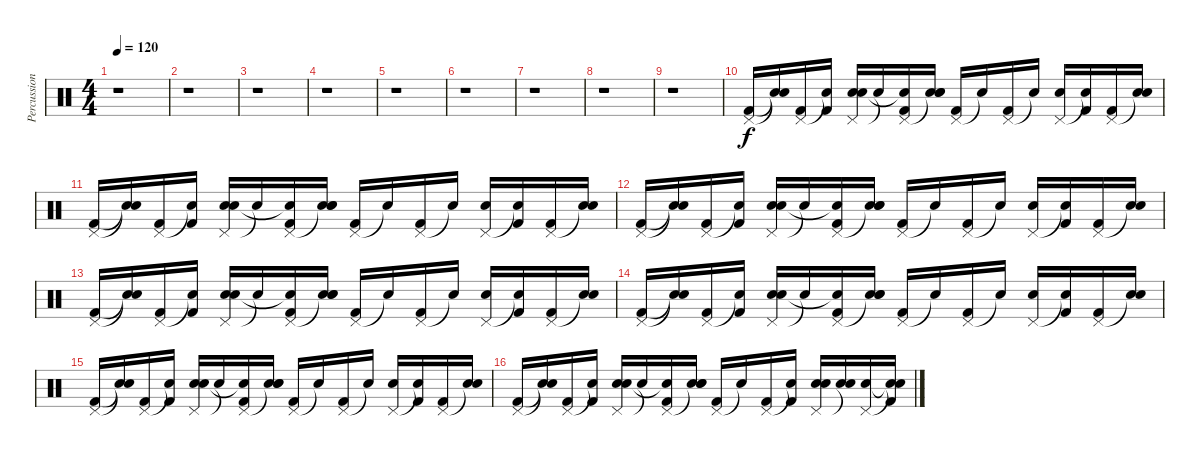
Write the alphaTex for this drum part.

\track ("Percussions" "Percussion") {instrument percussion}
\staff {score}
\articulation defaults
\ts (4 4)
\tempo 120
\clef neutral
\ks c
r.1{dy f} |
r.1 |
r.1 |
r.1 |
r.1 |
r.1 |
r.1 |
r.1 |
r.1 |
("Pedal Hi-Hat (hit)" "Kick (hit) 2").16 ("Snare (hit)"{t} "Snare (hit)"{t}).16 ("Pedal Hi-Hat (hit)" "Kick (hit) 2").16 ("Snare (hit)"{t} "Kick (hit) 2").16 ("Pedal Hi-Hat (hit)" "Electric Snare (hit)" "Snare (hit) 2").16 "Snare (hit)"{t}.16 ("Pedal Hi-Hat (hit)" "Snare (hit)"{t} "Kick (hit) 2").16 ("Snare (hit)"{t} "Electric Snare (hit)" "Snare (hit) 2").16 ("Pedal Hi-Hat (hit)" "Kick (hit) 2").16 "Snare (hit)"{t}.16 ("Pedal Hi-Hat (hit)" "Kick (hit) 2").16 "Snare (hit)"{t}.16 ("Pedal Hi-Hat (hit)" "Snare (hit) 2").16 ("Snare (hit)"{t} "Kick (hit) 2").16 ("Pedal Hi-Hat (hit)" "Kick (hit) 2").16 ("Snare (hit)"{t} "Electric Snare (hit)").16 |
("Pedal Hi-Hat (hit)" "Kick (hit) 2").16 ("Snare (hit)"{t} "Snare (hit)"{t}).16 ("Pedal Hi-Hat (hit)" "Kick (hit) 2").16 ("Snare (hit)"{t} "Kick (hit) 2").16 ("Pedal Hi-Hat (hit)" "Electric Snare (hit)" "Snare (hit) 2").16 "Snare (hit)"{t}.16 ("Pedal Hi-Hat (hit)" "Snare (hit)"{t} "Kick (hit) 2").16 ("Snare (hit)"{t} "Electric Snare (hit)" "Snare (hit) 2").16 ("Pedal Hi-Hat (hit)" "Kick (hit) 2").16 "Snare (hit)"{t}.16 ("Pedal Hi-Hat (hit)" "Kick (hit) 2").16 "Snare (hit)"{t}.16 ("Pedal Hi-Hat (hit)" "Snare (hit) 2").16 ("Snare (hit)"{t} "Kick (hit) 2").16 ("Pedal Hi-Hat (hit)" "Kick (hit) 2").16 ("Snare (hit)"{t} "Electric Snare (hit)").16 |
("Pedal Hi-Hat (hit)" "Kick (hit) 2").16 ("Snare (hit)"{t} "Snare (hit)"{t}).16 ("Pedal Hi-Hat (hit)" "Kick (hit) 2").16 ("Snare (hit)"{t} "Kick (hit) 2").16 ("Pedal Hi-Hat (hit)" "Electric Snare (hit)" "Snare (hit) 2").16 "Snare (hit)"{t}.16 ("Pedal Hi-Hat (hit)" "Snare (hit)"{t} "Kick (hit) 2").16 ("Snare (hit)"{t} "Electric Snare (hit)" "Snare (hit) 2").16 ("Pedal Hi-Hat (hit)" "Kick (hit) 2").16 "Snare (hit)"{t}.16 ("Pedal Hi-Hat (hit)" "Kick (hit) 2").16 "Snare (hit)"{t}.16 ("Pedal Hi-Hat (hit)" "Snare (hit) 2").16 ("Snare (hit)"{t} "Kick (hit) 2").16 ("Pedal Hi-Hat (hit)" "Kick (hit) 2").16 ("Snare (hit)"{t} "Electric Snare (hit)").16 |
("Pedal Hi-Hat (hit)" "Kick (hit) 2").16 ("Snare (hit)"{t} "Snare (hit)"{t}).16 ("Pedal Hi-Hat (hit)" "Kick (hit) 2").16 ("Snare (hit)"{t} "Kick (hit) 2").16 ("Pedal Hi-Hat (hit)" "Electric Snare (hit)" "Snare (hit) 2").16 "Snare (hit)"{t}.16 ("Pedal Hi-Hat (hit)" "Snare (hit)"{t} "Kick (hit) 2").16 ("Snare (hit)"{t} "Electric Snare (hit)" "Snare (hit) 2").16 ("Pedal Hi-Hat (hit)" "Kick (hit) 2").16 "Snare (hit)"{t}.16 ("Pedal Hi-Hat (hit)" "Kick (hit) 2").16 "Snare (hit)"{t}.16 ("Pedal Hi-Hat (hit)" "Snare (hit) 2").16 ("Snare (hit)"{t} "Kick (hit) 2").16 ("Pedal Hi-Hat (hit)" "Kick (hit) 2").16 ("Snare (hit)"{t} "Electric Snare (hit)").16 |
("Pedal Hi-Hat (hit)" "Kick (hit) 2").16 ("Snare (hit)"{t} "Snare (hit)"{t}).16 ("Pedal Hi-Hat (hit)" "Kick (hit) 2").16 ("Snare (hit)"{t} "Kick (hit) 2").16 ("Pedal Hi-Hat (hit)" "Electric Snare (hit)" "Snare (hit) 2").16 "Snare (hit)"{t}.16 ("Pedal Hi-Hat (hit)" "Snare (hit)"{t} "Kick (hit) 2").16 ("Snare (hit)"{t} "Electric Snare (hit)" "Snare (hit) 2").16 ("Pedal Hi-Hat (hit)" "Kick (hit) 2").16 "Snare (hit)"{t}.16 ("Pedal Hi-Hat (hit)" "Kick (hit) 2").16 "Snare (hit)"{t}.16 ("Pedal Hi-Hat (hit)" "Snare (hit) 2").16 ("Snare (hit)"{t} "Kick (hit) 2").16 ("Pedal Hi-Hat (hit)" "Kick (hit) 2").16 ("Snare (hit)"{t} "Electric Snare (hit)").16 |
("Pedal Hi-Hat (hit)" "Kick (hit) 2").16 ("Snare (hit)"{t} "Snare (hit)"{t}).16 ("Pedal Hi-Hat (hit)" "Kick (hit) 2").16 ("Snare (hit)"{t} "Kick (hit) 2").16 ("Pedal Hi-Hat (hit)" "Electric Snare (hit)" "Snare (hit) 2").16 "Snare (hit)"{t}.16 ("Pedal Hi-Hat (hit)" "Snare (hit)"{t} "Kick (hit) 2").16 ("Snare (hit)"{t} "Electric Snare (hit)" "Snare (hit) 2").16 ("Pedal Hi-Hat (hit)" "Kick (hit) 2").16 "Snare (hit)"{t}.16 ("Pedal Hi-Hat (hit)" "Kick (hit) 2").16 "Snare (hit)"{t}.16 ("Pedal Hi-Hat (hit)" "Snare (hit) 2").16 ("Snare (hit)"{t} "Kick (hit) 2").16 ("Pedal Hi-Hat (hit)" "Kick (hit) 2").16 ("Snare (hit)"{t} "Electric Snare (hit)").16 |
("Pedal Hi-Hat (hit)" "Kick (hit) 2").16 ("Snare (hit)"{t} "Snare (hit)"{t}).16 ("Pedal Hi-Hat (hit)" "Kick (hit) 2").16 ("Snare (hit)"{t} "Kick (hit) 2").16 ("Pedal Hi-Hat (hit)" "Electric Snare (hit)" "Snare (hit) 2").16 "Snare (hit)"{t}.16 ("Pedal Hi-Hat (hit)" "Snare (hit)"{t} "Kick (hit) 2").16 ("Snare (hit)"{t} "Electric Snare (hit)" "Snare (hit) 2").16 ("Pedal Hi-Hat (hit)" "Kick (hit) 2").16 "Snare (hit)"{t}.16 ("Pedal Hi-Hat (hit)" "Kick (hit) 2").16 ("Snare (hit)"{t} "Kick (hit) 2").16 ("Pedal Hi-Hat (hit)" "Electric Snare (hit)" "Snare (hit) 2").16 ("Snare (hit)"{t} "Snare (hit) 2").16 ("Pedal Hi-Hat (hit)" "Snare (hit) 2").16 ("Snare (hit)"{t} "Snare (hit)"{t} "Kick (hit) 2").16
